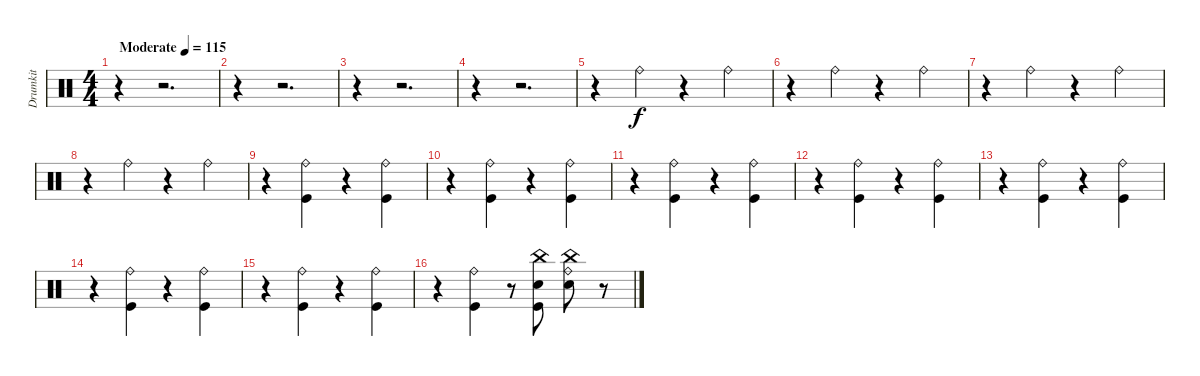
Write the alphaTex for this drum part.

\track ("Drumkit" "Drumkit") {instrument percussion}
\staff {score}
\articulation defaults
\ts (4 4)
\tempo (115 "Moderate")
\clef neutral
\ks c
r.4{dy f} r.2{d} |
r.4 r.2{d} |
r.4 r.2{d} |
r.4 r.2{d} |
r.4 "Ride (bell)".4 r.4 "Ride (bell)".4 |
r.4 "Ride (bell)".4 r.4 "Ride (bell)".4 |
r.4 "Ride (bell)".4 r.4 "Ride (bell)".4 |
r.4 "Ride (bell)".4 r.4 "Ride (bell)".4 |
r.4 ("Ride (bell)" "Kick (hit)").4 r.4 ("Ride (bell)" "Kick (hit)").4 |
r.4 ("Ride (bell)" "Kick (hit)").4 r.4 ("Ride (bell)" "Kick (hit)").4 |
r.4 ("Ride (bell)" "Kick (hit)").4 r.4 ("Ride (bell)" "Kick (hit)").4 |
r.4 ("Ride (bell)" "Kick (hit)").4 r.4 ("Ride (bell)" "Kick (hit)").4 |
r.4 ("Ride (bell)" "Kick (hit)").4 r.4 ("Ride (bell)" "Kick (hit)").4 |
r.4 ("Ride (bell)" "Kick (hit)").4 r.4 ("Ride (bell)" "Kick (hit)").4 |
r.4 ("Ride (bell)" "Kick (hit)").4 r.4 ("Ride (bell)" "Kick (hit)").4 |
r.4 ("Ride (bell)" "Kick (hit)").4 r.8 ("Snare (hit) 2" "Kick (hit)" "China (hit)").8 ("Snare (hit) 2" "Ride (bell)" "China (hit)").8 r.8
